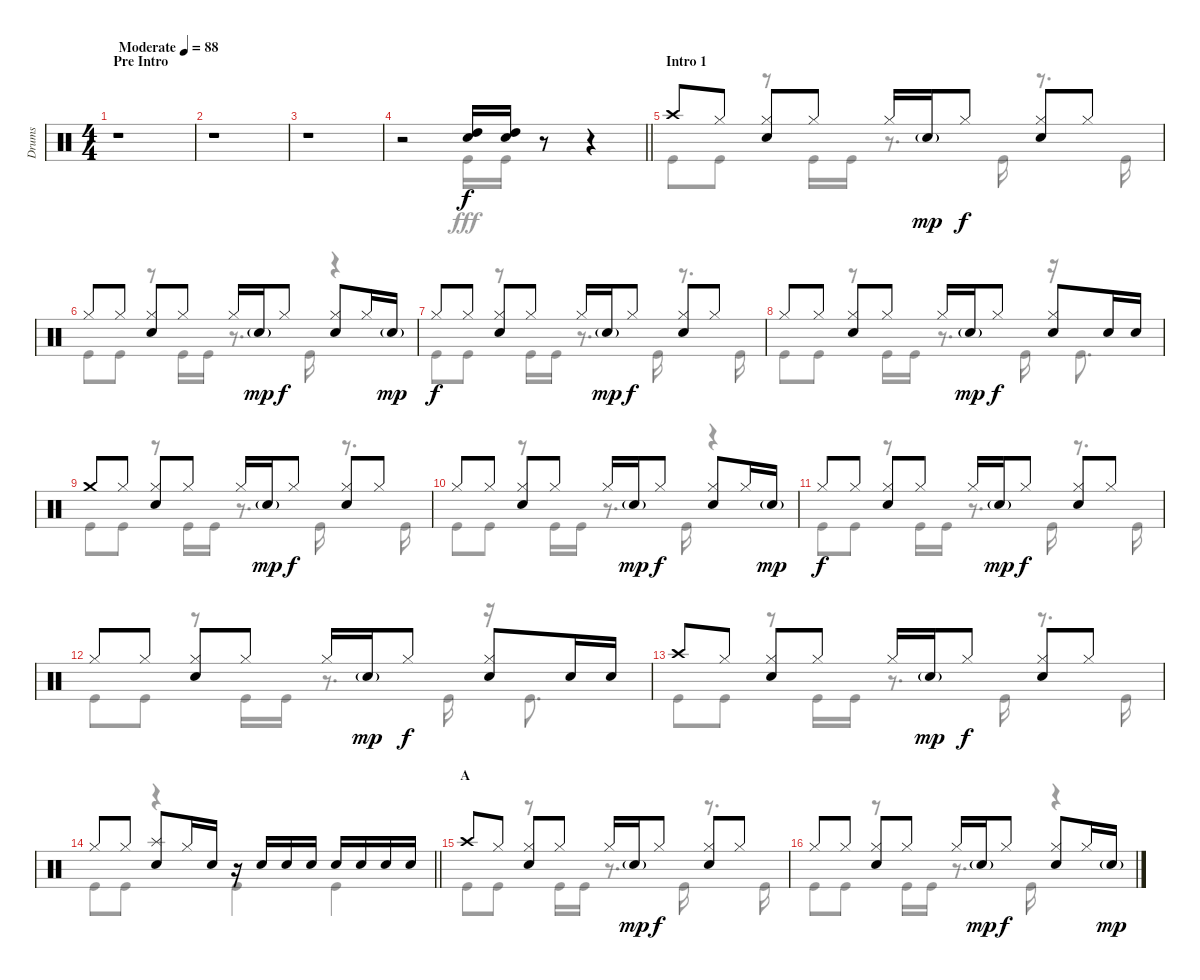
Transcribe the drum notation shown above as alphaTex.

\track ("Drums" "Drums") {instrument percussion}
\staff {score}
\articulation defaults
\voice
\ts (4 4)
\section ("" "Pre Intro")
\tempo (88 "Moderate")
\clef neutral
\ks c
r.1{dy f} |
r.1 |
r.1 |
\barLineRight lightlight
r.2 ("High Tom (hit)" "Snare (hit) 2").16 ("High Tom (hit)" "Snare (hit) 2").16 r.8 r.4 |
\section ("" "Intro 1")
"Crash high (hit)".8 "Hi-Hat (closed)".8 ("Hi-Hat (closed)" "Snare (hit) 2").8 "Hi-Hat (closed)".8 "Hi-Hat (closed)".16 "Snare (hit) 2"{g}.16{dy mp} "Hi-Hat (closed)".8{dy f} ("Hi-Hat (closed)" "Snare (hit) 2").8 "Hi-Hat (closed)".8 |
"Hi-Hat (closed)".8 "Hi-Hat (closed)".8 ("Hi-Hat (closed)" "Snare (hit) 2").8 "Hi-Hat (closed)".8 "Hi-Hat (closed)".16 "Snare (hit) 2"{g}.16{dy mp} "Hi-Hat (closed)".8{dy f} ("Hi-Hat (closed)" "Snare (hit) 2").8 "Hi-Hat (closed)".16 "Snare (hit) 2"{g}.16{dy mp} |
"Hi-Hat (closed)".8{dy f} "Hi-Hat (closed)".8 ("Hi-Hat (closed)" "Snare (hit) 2").8 "Hi-Hat (closed)".8 "Hi-Hat (closed)".16 "Snare (hit) 2"{g}.16{dy mp} "Hi-Hat (closed)".8{dy f} ("Hi-Hat (closed)" "Snare (hit) 2").8 "Hi-Hat (closed)".8 |
"Hi-Hat (closed)".8 "Hi-Hat (closed)".8 ("Hi-Hat (closed)" "Snare (hit) 2").8 "Hi-Hat (closed)".8 "Hi-Hat (closed)".16 "Snare (hit) 2"{g}.16{dy mp} "Hi-Hat (closed)".8{dy f} ("Hi-Hat (closed)" "Snare (hit) 2").8 "Snare (hit) 2".16 "Snare (hit) 2".16 |
"Crash medium (hit)".8 "Hi-Hat (closed)".8 ("Hi-Hat (closed)" "Snare (hit) 2").8 "Hi-Hat (closed)".8 "Hi-Hat (closed)".16 "Snare (hit) 2"{g}.16{dy mp} "Hi-Hat (closed)".8{dy f} ("Hi-Hat (closed)" "Snare (hit) 2").8 "Hi-Hat (closed)".8 |
"Hi-Hat (closed)".8 "Hi-Hat (closed)".8 ("Hi-Hat (closed)" "Snare (hit) 2").8 "Hi-Hat (closed)".8 "Hi-Hat (closed)".16 "Snare (hit) 2"{g}.16{dy mp} "Hi-Hat (closed)".8{dy f} ("Hi-Hat (closed)" "Snare (hit) 2").8 "Hi-Hat (closed)".16 "Snare (hit) 2"{g}.16{dy mp} |
"Hi-Hat (closed)".8{dy f} "Hi-Hat (closed)".8 ("Hi-Hat (closed)" "Snare (hit) 2").8 "Hi-Hat (closed)".8 "Hi-Hat (closed)".16 "Snare (hit) 2"{g}.16{dy mp} "Hi-Hat (closed)".8{dy f} ("Hi-Hat (closed)" "Snare (hit) 2").8 "Hi-Hat (closed)".8 |
"Hi-Hat (closed)".8 "Hi-Hat (closed)".8 ("Hi-Hat (closed)" "Snare (hit) 2").8 "Hi-Hat (closed)".8 "Hi-Hat (closed)".16 "Snare (hit) 2"{g}.16{dy mp} "Hi-Hat (closed)".8{dy f} ("Hi-Hat (closed)" "Snare (hit) 2").8 "Snare (hit) 2".16 "Snare (hit) 2".16 |
"Crash high (hit)".8 "Hi-Hat (closed)".8 ("Hi-Hat (closed)" "Snare (hit) 2").8 "Hi-Hat (closed)".8 "Hi-Hat (closed)".16 "Snare (hit) 2"{g}.16{dy mp} "Hi-Hat (closed)".8{dy f} ("Hi-Hat (closed)" "Snare (hit) 2").8 "Hi-Hat (closed)".8 |
\barLineRight lightlight "Hi-Hat (closed)".8 "Hi-Hat (closed)".8
("Splash (hit)" "Snare (hit) 2").8 "Hi-Hat (closed)".16 "Snare (hit) 2".16 r.16 "Snare (hit) 2".16 "Snare (hit) 2".16 "Snare (hit) 2".16 "Snare (hit) 2".16 "Snare (hit) 2".16 "Snare (hit) 2".16 "Snare (hit) 2".16 |
\section ("" "A")
"Crash high (hit)".8 "Hi-Hat (closed)".8 ("Hi-Hat (closed)" "Snare (hit) 2").8 "Hi-Hat (closed)".8 "Hi-Hat (closed)".16 "Snare (hit) 2"{g}.16{dy mp} "Hi-Hat (closed)".8{dy f} ("Hi-Hat (closed)" "Snare (hit) 2").8 "Hi-Hat (closed)".8 |
"Hi-Hat (closed)".8 "Hi-Hat (closed)".8 ("Hi-Hat (closed)" "Snare (hit) 2").8 "Hi-Hat (closed)".8 "Hi-Hat (closed)".16 "Snare (hit) 2"{g}.16{dy mp} "Hi-Hat (closed)".8{dy f} ("Hi-Hat (closed)" "Snare (hit) 2").8 "Hi-Hat (closed)".16 "Snare (hit) 2"{g}.16{dy mp}
\voice
\clef neutral
\ottava regular
\simile none
\ks c
r.1{dy fff} |
r.1 |
r.1 |
\barLineRight lightlight
r.2 "Kick (hit)".16 "Kick (hit)".16 r.8 r.4 |
"Kick (hit)".8 "Kick (hit)".8 r.8 "Kick (hit)".16 "Kick (hit)".16 r.8{d} "Kick (hit)".16 r.8{d} "Kick (hit)".16 |
"Kick (hit)".8 "Kick (hit)".8 r.8 "Kick (hit)".16 "Kick (hit)".16 r.8{d} "Kick (hit)".16 r.4 |
"Kick (hit)".8 "Kick (hit)".8 r.8 "Kick (hit)".16 "Kick (hit)".16 r.8{d} "Kick (hit)".16 r.8{d} "Kick (hit)".16 |
"Kick (hit)".8 "Kick (hit)".8 r.8 "Kick (hit)".16 "Kick (hit)".16 r.8{d} "Kick (hit)".16 r.16 "Kick (hit)".8{d} |
"Kick (hit)".8 "Kick (hit)".8 r.8 "Kick (hit)".16 "Kick (hit)".16 r.8{d} "Kick (hit)".16 r.8{d} "Kick (hit)".16 |
"Kick (hit)".8 "Kick (hit)".8 r.8 "Kick (hit)".16 "Kick (hit)".16 r.8{d} "Kick (hit)".16 r.4 |
"Kick (hit)".8 "Kick (hit)".8 r.8 "Kick (hit)".16 "Kick (hit)".16 r.8{d} "Kick (hit)".16 r.8{d} "Kick (hit)".16 |
"Kick (hit)".8 "Kick (hit)".8 r.8 "Kick (hit)".16 "Kick (hit)".16 r.8{d} "Kick (hit)".16 r.16 "Kick (hit)".8{d} |
"Kick (hit)".8 "Kick (hit)".8 r.8 "Kick (hit)".16 "Kick (hit)".16 r.8{d} "Kick (hit)".16 r.8{d} "Kick (hit)".16 |
\barLineRight lightlight "Kick (hit)".8 "Kick (hit)".8
r.4 "Kick (hit)".4 "Kick (hit)".4 |
"Kick (hit)".8 "Kick (hit)".8 r.8 "Kick (hit)".16 "Kick (hit)".16 r.8{d} "Kick (hit)".16 r.8{d} "Kick (hit)".16 |
"Kick (hit)".8 "Kick (hit)".8 r.8 "Kick (hit)".16 "Kick (hit)".16 r.8{d} "Kick (hit)".16 r.4
